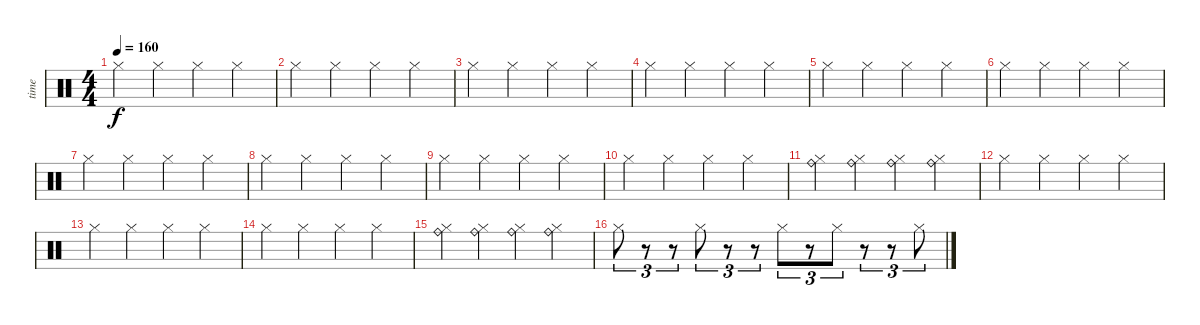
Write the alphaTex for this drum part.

\track ("time" "time") {instrument percussion}
\staff {score}
\articulation defaults
\ts (4 4)
\tempo 160
\clef neutral
\ks c "Hi-Hat (closed)".4{dy f} "Hi-Hat (closed)".4 "Hi-Hat (closed)".4 "Hi-Hat (closed)".4
|
"Hi-Hat (closed)".4 "Hi-Hat (closed)".4 "Hi-Hat (closed)".4 "Hi-Hat (closed)".4 |
"Hi-Hat (closed)".4 "Hi-Hat (closed)".4 "Hi-Hat (closed)".4 "Hi-Hat (closed)".4 |
"Hi-Hat (closed)".4 "Hi-Hat (closed)".4 "Hi-Hat (closed)".4 "Hi-Hat (closed)".4 |
"Hi-Hat (closed)".4 "Hi-Hat (closed)".4 "Hi-Hat (closed)".4 "Hi-Hat (closed)".4 |
"Hi-Hat (closed)".4 "Hi-Hat (closed)".4 "Hi-Hat (closed)".4 "Hi-Hat (closed)".4 |
"Hi-Hat (closed)".4 "Hi-Hat (closed)".4 "Hi-Hat (closed)".4 "Hi-Hat (closed)".4 |
"Hi-Hat (closed)".4 "Hi-Hat (closed)".4 "Hi-Hat (closed)".4 "Hi-Hat (closed)".4 |
"Hi-Hat (closed)".4 "Hi-Hat (closed)".4 "Hi-Hat (closed)".4 "Hi-Hat (closed)".4 |
"Hi-Hat (closed)".4 "Hi-Hat (closed)".4 "Hi-Hat (closed)".4 "Hi-Hat (closed)".4 |
("Ride (bell)" "Hi-Hat (closed)").4 ("Ride (bell)" "Hi-Hat (closed)").4 ("Ride (bell)" "Hi-Hat (closed)").4 ("Ride (bell)" "Hi-Hat (closed)").4 |
"Hi-Hat (closed)".4 "Hi-Hat (closed)".4 "Hi-Hat (closed)".4 "Hi-Hat (closed)".4 |
"Hi-Hat (closed)".4 "Hi-Hat (closed)".4 "Hi-Hat (closed)".4 "Hi-Hat (closed)".4 |
"Hi-Hat (closed)".4 "Hi-Hat (closed)".4 "Hi-Hat (closed)".4 "Hi-Hat (closed)".4 |
("Ride (bell)" "Hi-Hat (closed)").4 ("Ride (bell)" "Hi-Hat (closed)").4 ("Ride (bell)" "Hi-Hat (closed)").4 ("Ride (bell)" "Hi-Hat (closed)").4 |
"Hi-Hat (closed)".8{tu (3 2)} r.8{tu (3 2)} r.8{tu (3 2)} "Hi-Hat (closed)".8{tu (3 2)} r.8{tu (3 2)} r.8{tu (3 2)} "Hi-Hat (closed)".8{tu (3 2)} r.8{tu (3 2)} "Hi-Hat (closed)".8{tu (3 2)} r.8{tu (3 2)} r.8{tu (3 2)} "Hi-Hat (closed)".8{tu (3 2)}
